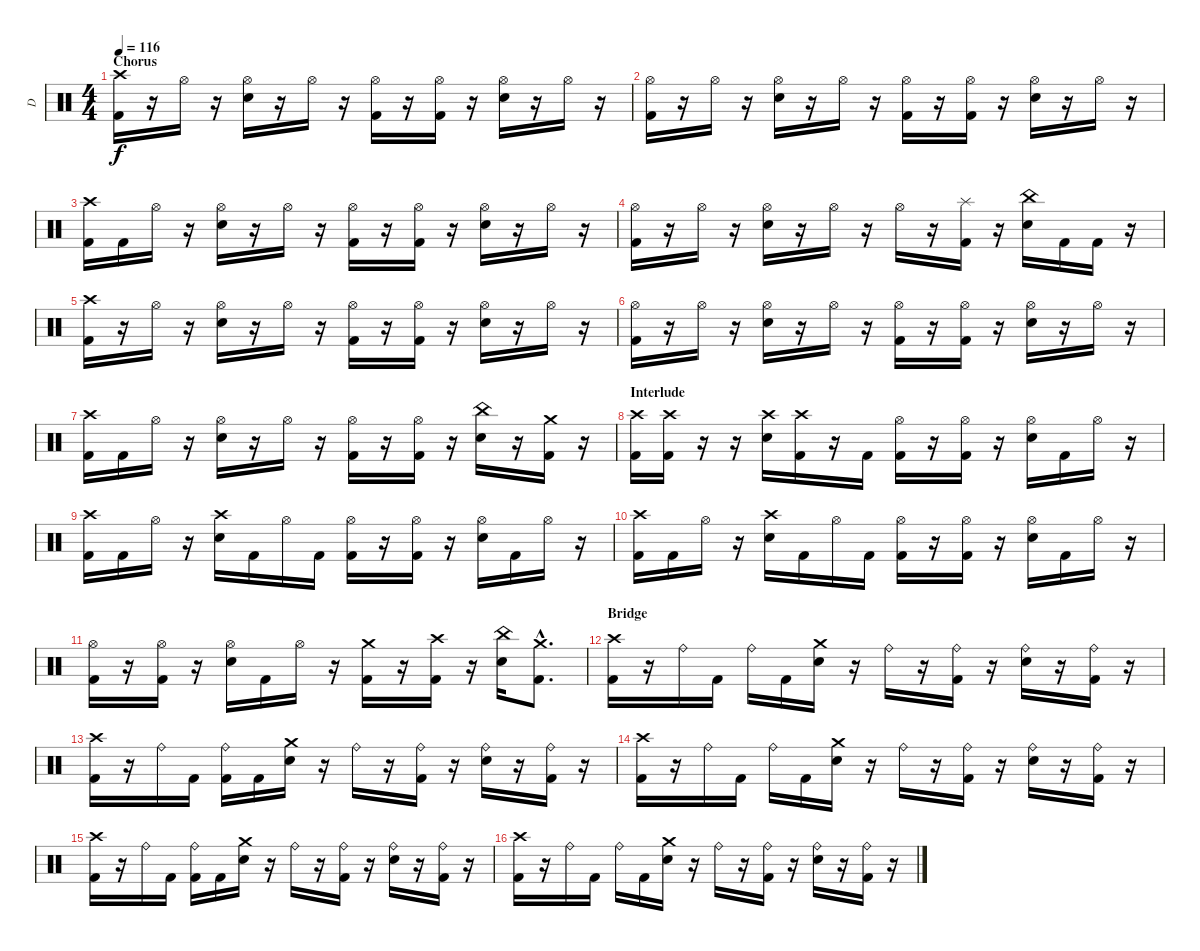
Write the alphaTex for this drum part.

\track ("D" "D") {instrument percussion}
\staff {score}
\articulation defaults
\ts (4 4)
\section ("" "Chorus")
\tempo 116
\clef neutral
\ks c
("Crash high (hit)" "Kick (hit) 2").16{dy f} r.16 "Hi-Hat (open)".16 r.16 ("Hi-Hat (open)" "Electric Snare (hit)").16 r.16 "Hi-Hat (open)".16 r.16 ("Hi-Hat (open)" "Kick (hit) 2").16 r.16 ("Hi-Hat (open)" "Kick (hit) 2").16 r.16 ("Hi-Hat (open)" "Electric Snare (hit)").16 r.16 "Hi-Hat (open)".16 r.16 |
("Hi-Hat (open)" "Kick (hit) 2").16 r.16 "Hi-Hat (open)".16 r.16 ("Hi-Hat (open)" "Electric Snare (hit)").16 r.16 "Hi-Hat (open)".16 r.16 ("Hi-Hat (open)" "Kick (hit) 2").16 r.16 ("Hi-Hat (open)" "Kick (hit) 2").16 r.16 ("Hi-Hat (open)" "Electric Snare (hit)").16 r.16 "Hi-Hat (open)".16 r.16 |
("Crash high (hit)" "Kick (hit) 2").16 "Kick (hit) 2".16 "Hi-Hat (open)".16 r.16 ("Hi-Hat (open)" "Electric Snare (hit)").16 r.16 "Hi-Hat (open)".16 r.16 ("Hi-Hat (open)" "Kick (hit) 2").16 r.16 ("Hi-Hat (open)" "Kick (hit) 2").16 r.16 ("Hi-Hat (open)" "Electric Snare (hit)").16 r.16 "Hi-Hat (open)".16 r.16 |
("Hi-Hat (open)" "Kick (hit) 2").16 r.16 "Hi-Hat (open)".16 r.16 ("Hi-Hat (open)" "Electric Snare (hit)").16 r.16 "Hi-Hat (open)".16 r.16 "Hi-Hat (open)".16 r.16 ("Splash (hit)" "Kick (hit) 2").16 r.16 ("China (hit)" "Electric Snare (hit)").16 "Kick (hit) 2".16 "Kick (hit) 2".16 r.16 |
("Crash high (hit)" "Kick (hit) 2").16 r.16 "Hi-Hat (open)".16 r.16 ("Hi-Hat (open)" "Electric Snare (hit)").16 r.16 "Hi-Hat (open)".16 r.16 ("Hi-Hat (open)" "Kick (hit) 2").16 r.16 ("Hi-Hat (open)" "Kick (hit) 2").16 r.16 ("Hi-Hat (open)" "Electric Snare (hit)").16 r.16 "Hi-Hat (open)".16 r.16 |
("Hi-Hat (open)" "Kick (hit) 2").16 r.16 "Hi-Hat (open)".16 r.16 ("Hi-Hat (open)" "Electric Snare (hit)").16 r.16 "Hi-Hat (open)".16 r.16 ("Hi-Hat (open)" "Kick (hit) 2").16 r.16 ("Hi-Hat (open)" "Kick (hit) 2").16 r.16 ("Hi-Hat (open)" "Electric Snare (hit)").16 r.16 "Hi-Hat (open)".16 r.16 |
("Crash high (hit)" "Kick (hit) 2").16 "Kick (hit) 2".16 "Hi-Hat (open)".16 r.16 ("Hi-Hat (open)" "Electric Snare (hit)").16 r.16 "Hi-Hat (open)".16 r.16 ("Hi-Hat (open)" "Kick (hit) 2").16 r.16 ("Hi-Hat (open)" "Kick (hit) 2").16 r.16 ("China (hit)" "Electric Snare (hit)").16 r.16 ("Crash medium (hit)" "Kick (hit) 2").16 r.16 |
\section ("" "Interlude")
("Crash high (hit)" "Kick (hit) 2").16 ("Crash high (hit)" "Kick (hit) 2").16 r.16 r.16 ("Crash high (hit)" "Electric Snare (hit)").16 ("Crash high (hit)" "Kick (hit) 2").16 r.16 "Kick (hit) 2".16 ("Hi-Hat (open)" "Kick (hit) 2").16 r.16 ("Hi-Hat (open)" "Kick (hit) 2").16 r.16 ("Hi-Hat (open)" "Electric Snare (hit)").16 "Kick (hit) 2".16 "Hi-Hat (open)".16 r.16 |
("Crash high (hit)" "Kick (hit) 2").16 "Kick (hit) 2".16 "Hi-Hat (open)".16 r.16 ("Crash high (hit)" "Electric Snare (hit)").16 "Kick (hit) 2".16 "Hi-Hat (open)".16 "Kick (hit) 2".16 ("Hi-Hat (open)" "Kick (hit) 2").16 r.16 ("Hi-Hat (open)" "Kick (hit) 2").16 r.16 ("Hi-Hat (open)" "Electric Snare (hit)").16 "Kick (hit) 2".16 "Hi-Hat (open)".16 r.16 |
("Crash high (hit)" "Kick (hit) 2").16 "Kick (hit) 2".16 "Hi-Hat (open)".16 r.16 ("Crash high (hit)" "Electric Snare (hit)").16 "Kick (hit) 2".16 "Hi-Hat (open)".16 "Kick (hit) 2".16 ("Hi-Hat (open)" "Kick (hit) 2").16 r.16 ("Hi-Hat (open)" "Kick (hit) 2").16 r.16 ("Hi-Hat (open)" "Electric Snare (hit)").16 "Kick (hit) 2".16 "Hi-Hat (open)".16 r.16 |
("Hi-Hat (open)" "Kick (hit) 2").16 r.16 ("Hi-Hat (open)" "Kick (hit) 2").16 r.16 ("Hi-Hat (open)" "Electric Snare (hit)").16 "Kick (hit) 2".16 "Hi-Hat (open)".16 r.16 ("Crash medium (hit)" "Kick (hit) 2").16 r.16 ("Crash high (hit)" "Kick (hit) 2").16 r.16 ("China (hit)" "Electric Snare (hit)").16 ("Crash medium (hit)"{hac} "Kick (hit) 2"{hac}).8{d} |
\section ("" "Bridge")
("Crash high (hit)" "Kick (hit) 2").16 r.16 "Ride (bell)".16 "Kick (hit) 2".16 "Ride (bell)".16 "Kick (hit) 2".16 ("Crash medium (hit)" "Electric Snare (hit)").16 r.16 "Ride (bell)".16 r.16 ("Ride (bell)" "Kick (hit) 2").16 r.16 ("Ride (bell)" "Electric Snare (hit)").16 r.16 ("Ride (bell)" "Kick (hit) 2").16 r.16 |
("Crash high (hit)" "Kick (hit) 2").16 r.16 "Ride (bell)".16 "Kick (hit) 2".16 ("Ride (bell)" "Kick (hit) 2").16 "Kick (hit) 2".16 ("Crash medium (hit)" "Electric Snare (hit)").16 r.16 "Ride (bell)".16 r.16 ("Ride (bell)" "Kick (hit) 2").16 r.16 ("Ride (bell)" "Electric Snare (hit)").16 r.16 ("Ride (bell)" "Kick (hit) 2").16 r.16 |
("Crash high (hit)" "Kick (hit) 2").16 r.16 "Ride (bell)".16 "Kick (hit) 2".16 "Ride (bell)".16 "Kick (hit) 2".16 ("Crash medium (hit)" "Electric Snare (hit)").16 r.16 "Ride (bell)".16 r.16 ("Ride (bell)" "Kick (hit) 2").16 r.16 ("Ride (bell)" "Electric Snare (hit)").16 r.16 ("Ride (bell)" "Kick (hit) 2").16 r.16 |
("Crash high (hit)" "Kick (hit) 2").16 r.16 "Ride (bell)".16 "Kick (hit) 2".16 ("Ride (bell)" "Kick (hit) 2").16 "Kick (hit) 2".16 ("Crash medium (hit)" "Electric Snare (hit)").16 r.16 "Ride (bell)".16 r.16 ("Ride (bell)" "Kick (hit) 2").16 r.16 ("Ride (bell)" "Electric Snare (hit)").16 r.16 ("Ride (bell)" "Kick (hit) 2").16 r.16 |
("Crash high (hit)" "Kick (hit) 2").16 r.16 "Ride (bell)".16 "Kick (hit) 2".16 "Ride (bell)".16 "Kick (hit) 2".16 ("Crash medium (hit)" "Electric Snare (hit)").16 r.16 "Ride (bell)".16 r.16 ("Ride (bell)" "Kick (hit) 2").16 r.16 ("Ride (bell)" "Electric Snare (hit)").16 r.16 ("Ride (bell)" "Kick (hit) 2").16 r.16
